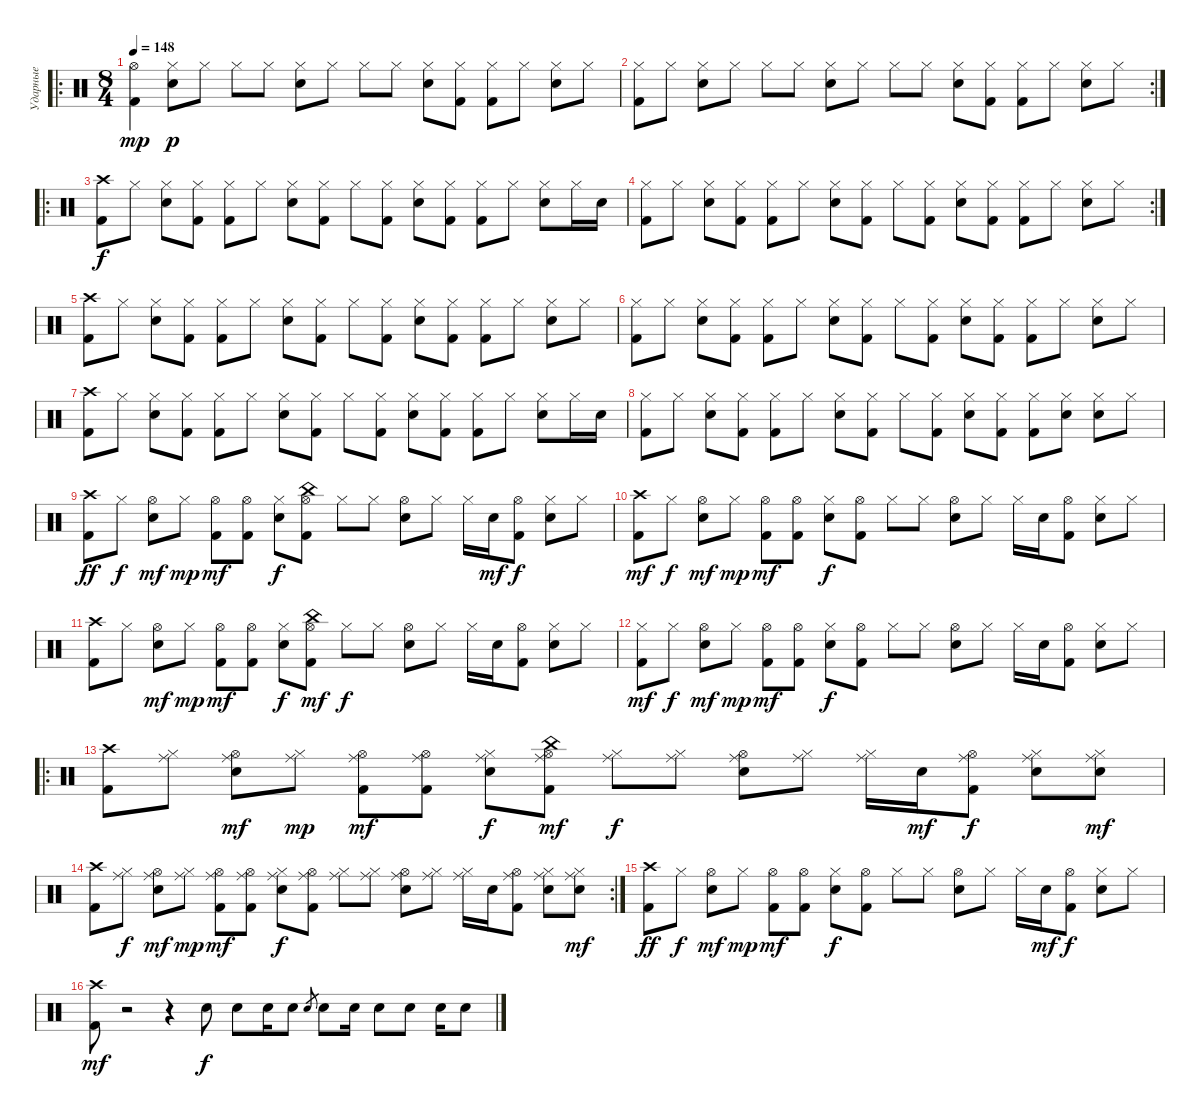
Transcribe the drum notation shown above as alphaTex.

\track ("Ударные" "Ударные") {instrument percussion}
\staff {score}
\articulation defaults
\ro
\ts (8 4)
\tempo 148
\clef neutral
\ks c
("Hi-Hat (open)" "Kick (hit) 2").4{dy mp volume 12 balance 7} ("Hi-Hat (closed)" "Electric Snare (hit)").8{dy p} "Hi-Hat (closed)".8 "Hi-Hat (closed)".8 "Hi-Hat (closed)".8 ("Hi-Hat (closed)" "Electric Snare (hit)").8 "Hi-Hat (closed)".8 "Hi-Hat (closed)".8 "Hi-Hat (closed)".8 ("Hi-Hat (closed)" "Electric Snare (hit)").8 ("Hi-Hat (closed)" "Kick (hit) 2").8 ("Hi-Hat (closed)" "Kick (hit) 2").8 "Hi-Hat (closed)".8 ("Hi-Hat (closed)" "Electric Snare (hit)").8 "Hi-Hat (closed)".8 |
\rc 2
("Hi-Hat (closed)" "Kick (hit) 2").8 "Hi-Hat (closed)".8 ("Hi-Hat (closed)" "Electric Snare (hit)").8 "Hi-Hat (closed)".8 "Hi-Hat (closed)".8 "Hi-Hat (closed)".8 ("Hi-Hat (closed)" "Electric Snare (hit)").8 "Hi-Hat (closed)".8 "Hi-Hat (closed)".8 "Hi-Hat (closed)".8 ("Hi-Hat (closed)" "Electric Snare (hit)").8 ("Hi-Hat (closed)" "Kick (hit) 2").8 ("Hi-Hat (closed)" "Kick (hit) 2").8 "Hi-Hat (closed)".8 ("Hi-Hat (closed)" "Electric Snare (hit)").8 "Hi-Hat (closed)".8 |
\ro
("Crash high (hit)" "Kick (hit) 2").8{dy f} "Hi-Hat (closed)".8 ("Hi-Hat (closed)" "Electric Snare (hit)").8 ("Hi-Hat (closed)" "Kick (hit) 2").8 ("Hi-Hat (closed)" "Kick (hit) 2").8 "Hi-Hat (closed)".8 ("Hi-Hat (closed)" "Electric Snare (hit)").8 ("Hi-Hat (closed)" "Kick (hit) 2").8 "Hi-Hat (closed)".8 ("Hi-Hat (closed)" "Kick (hit) 2").8 ("Hi-Hat (closed)" "Electric Snare (hit)").8 ("Hi-Hat (closed)" "Kick (hit) 2").8 ("Hi-Hat (closed)" "Kick (hit) 2").8 "Hi-Hat (closed)".8 ("Hi-Hat (closed)" "Electric Snare (hit)").8 "Hi-Hat (closed)".16 "Electric Snare (hit)".16 |
\rc 2
("Hi-Hat (closed)" "Kick (hit) 2").8 "Hi-Hat (closed)".8 ("Hi-Hat (closed)" "Electric Snare (hit)").8 ("Hi-Hat (closed)" "Kick (hit) 2").8 ("Hi-Hat (closed)" "Kick (hit) 2").8 "Hi-Hat (closed)".8 ("Hi-Hat (closed)" "Electric Snare (hit)").8 ("Hi-Hat (closed)" "Kick (hit) 2").8 "Hi-Hat (closed)".8 ("Hi-Hat (closed)" "Kick (hit) 2").8 ("Hi-Hat (closed)" "Electric Snare (hit)").8 ("Hi-Hat (closed)" "Kick (hit) 2").8 ("Hi-Hat (closed)" "Kick (hit) 2").8 "Hi-Hat (closed)".8 ("Hi-Hat (closed)" "Electric Snare (hit)").8 "Hi-Hat (closed)".8 |
("Crash high (hit)" "Kick (hit) 2").8 "Hi-Hat (closed)".8 ("Hi-Hat (closed)" "Electric Snare (hit)").8 ("Hi-Hat (closed)" "Kick (hit) 2").8 ("Hi-Hat (closed)" "Kick (hit) 2").8 "Hi-Hat (closed)".8 ("Hi-Hat (closed)" "Electric Snare (hit)").8 ("Hi-Hat (closed)" "Kick (hit) 2").8 "Hi-Hat (closed)".8 ("Hi-Hat (closed)" "Kick (hit) 2").8 ("Hi-Hat (closed)" "Electric Snare (hit)").8 ("Hi-Hat (closed)" "Kick (hit) 2").8 ("Hi-Hat (closed)" "Kick (hit) 2").8 "Hi-Hat (closed)".8 ("Hi-Hat (closed)" "Electric Snare (hit)").8 "Hi-Hat (closed)".8 |
("Hi-Hat (closed)" "Kick (hit) 2").8 "Hi-Hat (closed)".8 ("Hi-Hat (closed)" "Electric Snare (hit)").8 ("Hi-Hat (closed)" "Kick (hit) 2").8 ("Hi-Hat (closed)" "Kick (hit) 2").8 "Hi-Hat (closed)".8 ("Hi-Hat (closed)" "Electric Snare (hit)").8 ("Hi-Hat (closed)" "Kick (hit) 2").8 "Hi-Hat (closed)".8 ("Hi-Hat (closed)" "Kick (hit) 2").8 ("Hi-Hat (closed)" "Electric Snare (hit)").8 ("Hi-Hat (closed)" "Kick (hit) 2").8 ("Hi-Hat (closed)" "Kick (hit) 2").8 "Hi-Hat (closed)".8 ("Hi-Hat (closed)" "Electric Snare (hit)").8 "Hi-Hat (closed)".8 |
("Crash high (hit)" "Kick (hit) 2").8 "Hi-Hat (closed)".8 ("Hi-Hat (closed)" "Electric Snare (hit)").8 ("Hi-Hat (closed)" "Kick (hit) 2").8 ("Hi-Hat (closed)" "Kick (hit) 2").8 "Hi-Hat (closed)".8 ("Hi-Hat (closed)" "Electric Snare (hit)").8 ("Hi-Hat (closed)" "Kick (hit) 2").8 "Hi-Hat (closed)".8 ("Hi-Hat (closed)" "Kick (hit) 2").8 ("Hi-Hat (closed)" "Electric Snare (hit)").8 ("Hi-Hat (closed)" "Kick (hit) 2").8 ("Hi-Hat (closed)" "Kick (hit) 2").8 "Hi-Hat (closed)".8 ("Hi-Hat (closed)" "Electric Snare (hit)").8 "Hi-Hat (closed)".16 "Electric Snare (hit)".16 |
("Hi-Hat (closed)" "Kick (hit) 2").8 "Hi-Hat (closed)".8 ("Hi-Hat (closed)" "Electric Snare (hit)").8 ("Hi-Hat (closed)" "Kick (hit) 2").8 ("Hi-Hat (closed)" "Kick (hit) 2").8 "Hi-Hat (closed)".8 ("Hi-Hat (closed)" "Electric Snare (hit)").8 ("Hi-Hat (closed)" "Kick (hit) 2").8 "Hi-Hat (closed)".8 ("Hi-Hat (closed)" "Kick (hit) 2").8 ("Hi-Hat (closed)" "Electric Snare (hit)").8 ("Hi-Hat (closed)" "Kick (hit) 2").8 ("Hi-Hat (closed)" "Kick (hit) 2").8 ("Hi-Hat (closed)" "Electric Snare (hit)").8 ("Hi-Hat (closed)" "Electric Snare (hit)").8 "Hi-Hat (closed)".8 |
("Crash high (hit)" "Kick (hit) 2").8{dy ff} "Hi-Hat (closed)".8{dy f} ("Hi-Hat (open)" "Electric Snare (hit)").8{dy mf} "Hi-Hat (closed)".8{dy mp} ("Hi-Hat (open)" "Kick (hit) 2").8{dy mf} ("Hi-Hat (open)" "Kick (hit) 2").8 ("Hi-Hat (closed)" "Electric Snare (hit)").8{dy f} ("Hi-Hat (open)" "China (hit)" "Kick (hit) 2").8 "Hi-Hat (closed)".8 "Hi-Hat (closed)".8 ("Hi-Hat (open)" "Electric Snare (hit)").8 "Hi-Hat (closed)".8 "Hi-Hat (closed)".16 "Electric Snare (hit)".16{dy mf} ("Hi-Hat (open)" "Kick (hit) 2").8{dy f} ("Hi-Hat (closed)" "Electric Snare (hit)").8 "Hi-Hat (closed)".8 |
("Crash high (hit)" "Kick (hit) 2").8{dy mf} "Hi-Hat (closed)".8{dy f} ("Hi-Hat (open)" "Electric Snare (hit)").8{dy mf} "Hi-Hat (closed)".8{dy mp} ("Hi-Hat (open)" "Kick (hit) 2").8{dy mf} ("Hi-Hat (open)" "Kick (hit) 2").8 ("Hi-Hat (closed)" "Electric Snare (hit)").8{dy f} ("Hi-Hat (open)" "Kick (hit) 2").8 "Hi-Hat (closed)".8 "Hi-Hat (closed)".8 ("Hi-Hat (open)" "Electric Snare (hit)").8 "Hi-Hat (closed)".8 "Hi-Hat (closed)".16 "Electric Snare (hit)".16 ("Hi-Hat (open)" "Kick (hit) 2").8 ("Hi-Hat (closed)" "Electric Snare (hit)").8 "Hi-Hat (closed)".8 |
("Crash high (hit)" "Kick (hit) 2").8 "Hi-Hat (closed)".8 ("Hi-Hat (open)" "Electric Snare (hit)").8{dy mf} "Hi-Hat (closed)".8{dy mp} ("Hi-Hat (open)" "Kick (hit) 2").8{dy mf} ("Hi-Hat (open)" "Kick (hit) 2").8 ("Hi-Hat (closed)" "Electric Snare (hit)").8{dy f} ("Hi-Hat (open)" "China (hit)" "Kick (hit) 2").8{dy mf} "Hi-Hat (closed)".8{dy f} "Hi-Hat (closed)".8 ("Hi-Hat (open)" "Electric Snare (hit)").8 "Hi-Hat (closed)".8 "Hi-Hat (closed)".16 "Electric Snare (hit)".16 ("Hi-Hat (open)" "Kick (hit) 2").8 ("Hi-Hat (closed)" "Electric Snare (hit)").8 "Hi-Hat (closed)".8 |
("Hi-Hat (closed)" "Kick (hit) 2").8{dy mf} "Hi-Hat (closed)".8{dy f} ("Hi-Hat (open)" "Electric Snare (hit)").8{dy mf} "Hi-Hat (closed)".8{dy mp} ("Hi-Hat (open)" "Kick (hit) 2").8{dy mf} ("Hi-Hat (open)" "Kick (hit) 2").8 ("Hi-Hat (closed)" "Electric Snare (hit)").8{dy f} ("Hi-Hat (open)" "Kick (hit) 2").8 "Hi-Hat (closed)".8 "Hi-Hat (closed)".8 ("Hi-Hat (open)" "Electric Snare (hit)").8 "Hi-Hat (closed)".8 "Hi-Hat (closed)".16 "Electric Snare (hit)".16 ("Hi-Hat (open)" "Kick (hit) 2").8 ("Hi-Hat (closed)" "Electric Snare (hit)").8 "Hi-Hat (closed)".8 |
\ro
("Crash high (hit)" "Kick (hit) 2").8 ("Hi-Hat (closed)" "Ride (middle)").8 ("Hi-Hat (open)" "Electric Snare (hit)" "Ride (middle)").8{dy mf} ("Hi-Hat (closed)" "Ride (middle)").8{dy mp} ("Hi-Hat (open)" "Ride (middle)" "Kick (hit) 2").8{dy mf} ("Hi-Hat (open)" "Ride (middle)" "Kick (hit) 2").8 ("Hi-Hat (closed)" "Electric Snare (hit)" "Ride (middle)").8{dy f} ("Hi-Hat (open)" "China (hit)" "Ride (middle)" "Kick (hit) 2").8{dy mf} ("Hi-Hat (closed)" "Ride (middle)").8{dy f} ("Hi-Hat (closed)" "Ride (middle)").8 ("Hi-Hat (open)" "Electric Snare (hit)" "Ride (middle)").8 ("Hi-Hat (closed)" "Ride (middle)").8 ("Hi-Hat (closed)" "Ride (middle)").16 "Electric Snare (hit)".16{dy mf} ("Hi-Hat (open)" "Ride (middle)" "Kick (hit) 2").8{dy f} ("Hi-Hat (closed)" "Electric Snare (hit)" "Ride (middle)").8 ("Hi-Hat (closed)" "Electric Snare (hit)" "Ride (middle)").8{dy mf} |
\rc 2
("Crash high (hit)" "Kick (hit) 2").8 ("Hi-Hat (closed)" "Ride (middle)").8{dy f} ("Hi-Hat (open)" "Electric Snare (hit)" "Ride (middle)").8{dy mf} ("Hi-Hat (closed)" "Ride (middle)").8{dy mp} ("Hi-Hat (open)" "Ride (middle)" "Kick (hit) 2").8{dy mf} ("Hi-Hat (open)" "Ride (middle)" "Kick (hit) 2").8 ("Hi-Hat (closed)" "Electric Snare (hit)" "Ride (middle)").8{dy f} ("Hi-Hat (open)" "Ride (middle)" "Kick (hit) 2").8 ("Hi-Hat (closed)" "Ride (middle)").8 ("Hi-Hat (closed)" "Ride (middle)").8 ("Hi-Hat (open)" "Electric Snare (hit)" "Ride (middle)").8 ("Hi-Hat (closed)" "Ride (middle)").8 ("Hi-Hat (closed)" "Ride (middle)").16 "Electric Snare (hit)".16 ("Hi-Hat (open)" "Ride (middle)" "Kick (hit) 2").8 ("Hi-Hat (closed)" "Electric Snare (hit)" "Ride (middle)").8 ("Hi-Hat (closed)" "Electric Snare (hit)" "Ride (middle)").8{dy mf} |
("Crash high (hit)" "Kick (hit) 2").8{dy ff} "Hi-Hat (closed)".8{dy f} ("Hi-Hat (open)" "Electric Snare (hit)").8{dy mf} "Hi-Hat (closed)".8{dy mp} ("Hi-Hat (open)" "Kick (hit) 2").8{dy mf} ("Hi-Hat (open)" "Kick (hit) 2").8 ("Hi-Hat (closed)" "Electric Snare (hit)").8{dy f} ("Hi-Hat (open)" "Kick (hit) 2").8 "Hi-Hat (closed)".8 "Hi-Hat (closed)".8 ("Hi-Hat (open)" "Electric Snare (hit)").8 "Hi-Hat (closed)".8 "Hi-Hat (closed)".16 "Electric Snare (hit)".16{dy mf} ("Hi-Hat (open)" "Kick (hit) 2").8{dy f} ("Hi-Hat (closed)" "Electric Snare (hit)").8 "Hi-Hat (closed)".8 |
("Crash high (hit)" "Kick (hit) 2").8{dy mf} r.2 r.4 "Electric Snare (hit)".8{dy f} "Electric Snare (hit)".8 "Electric Snare (hit)".16 "Electric Snare (hit)".8 "Electric Snare (hit)".8{gr} "Electric Snare (hit)".8 "Electric Snare (hit)".16 "Electric Snare (hit)".8 "Electric Snare (hit)".8 "Electric Snare (hit)".16 "Electric Snare (hit)".8
